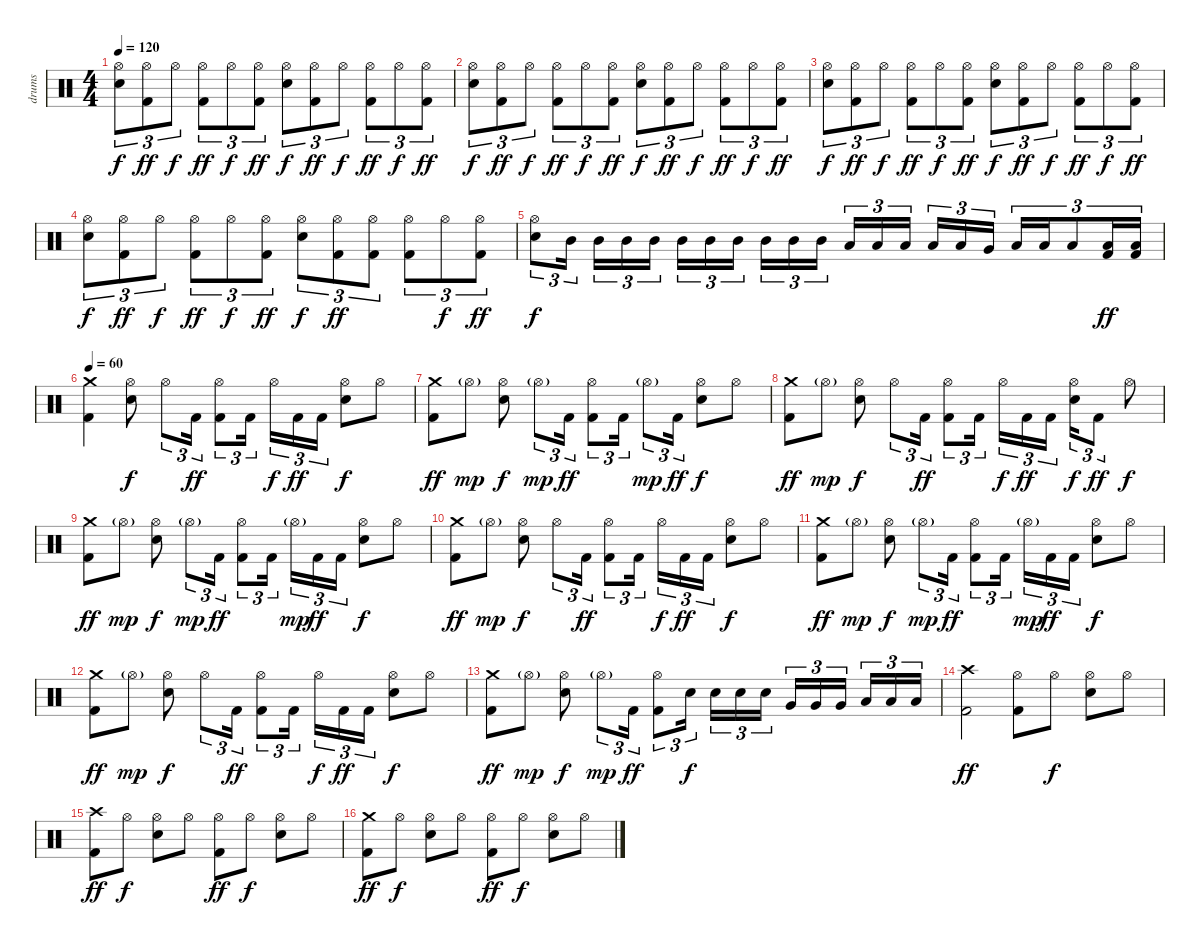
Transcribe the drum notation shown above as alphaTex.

\track ("drums" "drums") {instrument percussion}
\staff {score}
\articulation defaults
\ts (4 4)
\tempo 120
\clef neutral
\ks c
("Hi-Hat (open)" "Electric Snare (hit)").8{tu (3 2) dy f} ("Hi-Hat (open)" "Kick (hit) 2").8{tu (3 2) dy ff} "Hi-Hat (open)".8{tu (3 2) dy f} ("Hi-Hat (open)" "Kick (hit) 2").8{tu (3 2) dy ff} "Hi-Hat (open)".8{tu (3 2) dy f} ("Hi-Hat (open)" "Kick (hit) 2").8{tu (3 2) dy ff} ("Hi-Hat (open)" "Electric Snare (hit)").8{tu (3 2) dy f} ("Hi-Hat (open)" "Kick (hit) 2").8{tu (3 2) dy ff} "Hi-Hat (open)".8{tu (3 2) dy f} ("Hi-Hat (open)" "Kick (hit) 2").8{tu (3 2) dy ff} "Hi-Hat (open)".8{tu (3 2) dy f} ("Hi-Hat (open)" "Kick (hit) 2").8{tu (3 2) dy ff} |
("Hi-Hat (open)" "Electric Snare (hit)").8{tu (3 2) dy f} ("Hi-Hat (open)" "Kick (hit) 2").8{tu (3 2) dy ff} "Hi-Hat (open)".8{tu (3 2) dy f} ("Hi-Hat (open)" "Kick (hit) 2").8{tu (3 2) dy ff} "Hi-Hat (open)".8{tu (3 2) dy f} ("Hi-Hat (open)" "Kick (hit) 2").8{tu (3 2) dy ff} ("Hi-Hat (open)" "Electric Snare (hit)").8{tu (3 2) dy f} ("Hi-Hat (open)" "Kick (hit) 2").8{tu (3 2) dy ff} "Hi-Hat (open)".8{tu (3 2) dy f} ("Hi-Hat (open)" "Kick (hit) 2").8{tu (3 2) dy ff} "Hi-Hat (open)".8{tu (3 2) dy f} ("Hi-Hat (open)" "Kick (hit) 2").8{tu (3 2) dy ff} |
("Hi-Hat (open)" "Electric Snare (hit)").8{tu (3 2) dy f} ("Hi-Hat (open)" "Kick (hit) 2").8{tu (3 2) dy ff} "Hi-Hat (open)".8{tu (3 2) dy f} ("Hi-Hat (open)" "Kick (hit) 2").8{tu (3 2) dy ff} "Hi-Hat (open)".8{tu (3 2) dy f} ("Hi-Hat (open)" "Kick (hit) 2").8{tu (3 2) dy ff} ("Hi-Hat (open)" "Electric Snare (hit)").8{tu (3 2) dy f} ("Hi-Hat (open)" "Kick (hit) 2").8{tu (3 2) dy ff} "Hi-Hat (open)".8{tu (3 2) dy f} ("Hi-Hat (open)" "Kick (hit) 2").8{tu (3 2) dy ff} "Hi-Hat (open)".8{tu (3 2) dy f} ("Hi-Hat (open)" "Kick (hit) 2").8{tu (3 2) dy ff} |
("Hi-Hat (open)" "Electric Snare (hit)").8{tu (3 2) dy f} ("Hi-Hat (open)" "Kick (hit) 2").8{tu (3 2) dy ff} "Hi-Hat (open)".8{tu (3 2) dy f} ("Hi-Hat (open)" "Kick (hit) 2").8{tu (3 2) dy ff} "Hi-Hat (open)".8{tu (3 2) dy f} ("Hi-Hat (open)" "Kick (hit) 2").8{tu (3 2) dy ff} ("Hi-Hat (open)" "Electric Snare (hit)").8{tu (3 2) dy f} ("Hi-Hat (open)" "Kick (hit) 2").8{tu (3 2) dy ff} ("Hi-Hat (open)" "Kick (hit) 2").8{tu (3 2)} ("Hi-Hat (open)" "Kick (hit) 2").8{tu (3 2)} "Hi-Hat (open)".8{tu (3 2) dy f} ("Hi-Hat (open)" "Kick (hit) 2").8{tu (3 2) dy ff} |
("Hi-Hat (open)" "Electric Snare (hit)").8{tu (3 2) dy f} "Mid Tom (hit)".16{tu (3 2)} "Mid Tom (hit)".16{tu (3 2)} "Mid Tom (hit)".16{tu (3 2)} "Mid Tom (hit)".16{tu (3 2)} "Mid Tom (hit)".16{tu (3 2)} "Mid Tom (hit)".16{tu (3 2)} "Mid Tom (hit)".16{tu (3 2)} "Mid Tom (hit)".16{tu (3 2)} "Mid Tom (hit)".16{tu (3 2)} "Mid Tom (hit)".16{tu (3 2)} "Low Tom (hit)".16{tu (3 2)} "Low Tom (hit)".16{tu (3 2)} "Low Tom (hit)".16{tu (3 2)} "Low Tom (hit)".16{tu (3 2)} "Low Tom (hit)".16{tu (3 2)} "Very Low Tom (hit)".16{tu (3 2)} "Low Floor Tom (hit)".16{tu (3 2)} "Low Floor Tom (hit)".16{tu (3 2)} "Low Floor Tom (hit)".8{tu (3 2)} ("Low Floor Tom (hit)" "Kick (hit) 2").16{tu (3 2) dy ff} ("Low Floor Tom (hit)" "Kick (hit) 2").16{tu (3 2)} |
\tempo 60
("Crash medium (hit)" "Kick (hit) 2").4 ("Hi-Hat (open)" "Electric Snare (hit)").8{dy f} "Hi-Hat (open)".8{tu (3 2)} "Kick (hit) 2".16{tu (3 2) dy ff} ("Hi-Hat (open)" "Kick (hit) 2").8{tu (3 2)} "Kick (hit) 2".16{tu (3 2)} "Hi-Hat (open)".16{tu (3 2) dy f} "Kick (hit) 2".16{tu (3 2) dy ff} "Kick (hit) 2".16{tu (3 2)} ("Hi-Hat (open)" "Electric Snare (hit)").8{dy f} "Hi-Hat (open)".8 |
("Crash medium (hit)" "Kick (hit) 2").8{dy ff} "Hi-Hat (open)"{g}.8{dy mp} ("Hi-Hat (open)" "Electric Snare (hit)").8{dy f} "Hi-Hat (open)"{g}.8{tu (3 2) dy mp} "Kick (hit) 2".16{tu (3 2) dy ff} ("Hi-Hat (open)" "Kick (hit) 2").8{tu (3 2)} "Kick (hit) 2".16{tu (3 2)} "Hi-Hat (open)"{g}.8{tu (3 2) dy mp} "Kick (hit) 2".16{tu (3 2) dy ff} ("Hi-Hat (open)" "Electric Snare (hit)").8{dy f} "Hi-Hat (open)".8 |
("Crash medium (hit)" "Kick (hit) 2").8{dy ff} "Hi-Hat (open)"{g}.8{dy mp} ("Hi-Hat (open)" "Electric Snare (hit)").8{dy f} "Hi-Hat (open)".8{tu (3 2)} "Kick (hit) 2".16{tu (3 2) dy ff} ("Hi-Hat (open)" "Kick (hit) 2").8{tu (3 2)} "Kick (hit) 2".16{tu (3 2)} "Hi-Hat (open)".16{tu (3 2) dy f} "Kick (hit) 2".16{tu (3 2) dy ff} "Kick (hit) 2".16{tu (3 2)} ("Hi-Hat (open)" "Electric Snare (hit)").16{tu (3 2) dy f} "Kick (hit) 2".8{tu (3 2) dy ff} "Hi-Hat (open)".8{dy f} |
("Crash medium (hit)" "Kick (hit) 2").8{dy ff} "Hi-Hat (open)"{g}.8{dy mp} ("Hi-Hat (open)" "Electric Snare (hit)").8{dy f} "Hi-Hat (open)"{g}.8{tu (3 2) dy mp} "Kick (hit) 2".16{tu (3 2) dy ff} ("Hi-Hat (open)" "Kick (hit) 2").8{tu (3 2)} "Kick (hit) 2".16{tu (3 2)} "Hi-Hat (open)"{g}.16{tu (3 2) dy mp} "Kick (hit) 2".16{tu (3 2) dy ff} "Kick (hit) 2".16{tu (3 2)} ("Hi-Hat (open)" "Electric Snare (hit)").8{dy f} "Hi-Hat (open)".8 |
("Crash medium (hit)" "Kick (hit) 2").8{dy ff} "Hi-Hat (open)"{g}.8{dy mp} ("Hi-Hat (open)" "Electric Snare (hit)").8{dy f} "Hi-Hat (open)".8{tu (3 2)} "Kick (hit) 2".16{tu (3 2) dy ff} ("Hi-Hat (open)" "Kick (hit) 2").8{tu (3 2)} "Kick (hit) 2".16{tu (3 2)} "Hi-Hat (open)".16{tu (3 2) dy f} "Kick (hit) 2".16{tu (3 2) dy ff} "Kick (hit) 2".16{tu (3 2)} ("Hi-Hat (open)" "Electric Snare (hit)").8{dy f} "Hi-Hat (open)".8 |
("Crash medium (hit)" "Kick (hit) 2").8{dy ff} "Hi-Hat (open)"{g}.8{dy mp} ("Hi-Hat (open)" "Electric Snare (hit)").8{dy f} "Hi-Hat (open)"{g}.8{tu (3 2) dy mp} "Kick (hit) 2".16{tu (3 2) dy ff} ("Hi-Hat (open)" "Kick (hit) 2").8{tu (3 2)} "Kick (hit) 2".16{tu (3 2)} "Hi-Hat (open)"{g}.16{tu (3 2) dy mp} "Kick (hit) 2".16{tu (3 2) dy ff} "Kick (hit) 2".16{tu (3 2)} ("Hi-Hat (open)" "Electric Snare (hit)").8{dy f} "Hi-Hat (open)".8 |
("Crash medium (hit)" "Kick (hit) 2").8{dy ff} "Hi-Hat (open)"{g}.8{dy mp} ("Hi-Hat (open)" "Electric Snare (hit)").8{dy f} "Hi-Hat (open)".8{tu (3 2)} "Kick (hit) 2".16{tu (3 2) dy ff} ("Hi-Hat (open)" "Kick (hit) 2").8{tu (3 2)} "Kick (hit) 2".16{tu (3 2)} "Hi-Hat (open)".16{tu (3 2) dy f} "Kick (hit) 2".16{tu (3 2) dy ff} "Kick (hit) 2".16{tu (3 2)} ("Hi-Hat (open)" "Electric Snare (hit)").8{dy f} "Hi-Hat (open)".8 |
("Crash medium (hit)" "Kick (hit) 2").8{dy ff} "Hi-Hat (open)"{g}.8{dy mp} ("Hi-Hat (open)" "Electric Snare (hit)").8{dy f} "Hi-Hat (open)"{g}.8{tu (3 2) dy mp} "Kick (hit) 2".16{tu (3 2) dy ff} ("Hi-Hat (open)" "Kick (hit) 2").8{tu (3 2)} "Electric Snare (hit)".16{tu (3 2) dy f} "Electric Snare (hit)".16{tu (3 2)} "Electric Snare (hit)".16{tu (3 2)} "Electric Snare (hit)".16{tu (3 2)} "Very Low Tom (hit)".16{tu (3 2)} "Very Low Tom (hit)".16{tu (3 2)} "Very Low Tom (hit)".16{tu (3 2)} "Low Floor Tom (hit)".16{tu (3 2)} "Low Floor Tom (hit)".16{tu (3 2)} "Low Floor Tom (hit)".16{tu (3 2)} |
("Crash high (hit)" "Kick (hit) 2").2{dy ff} ("Hi-Hat (open)" "Kick (hit) 2").8 "Hi-Hat (open)".8{dy f} ("Hi-Hat (open)" "Electric Snare (hit)").8 "Hi-Hat (open)".8 |
("Crash high (hit)" "Kick (hit) 2").8{dy ff} "Hi-Hat (open)".8{dy f} ("Hi-Hat (open)" "Electric Snare (hit)").8 "Hi-Hat (open)".8 ("Hi-Hat (open)" "Kick (hit) 2").8{dy ff} "Hi-Hat (open)".8{dy f} ("Hi-Hat (open)" "Electric Snare (hit)").8 "Hi-Hat (open)".8 |
("Crash medium (hit)" "Kick (hit) 2").8{dy ff} "Hi-Hat (open)".8{dy f} ("Hi-Hat (open)" "Electric Snare (hit)").8 "Hi-Hat (open)".8 ("Hi-Hat (open)" "Kick (hit) 2").8{dy ff} "Hi-Hat (open)".8{dy f} ("Hi-Hat (open)" "Electric Snare (hit)").8 "Hi-Hat (open)".8
